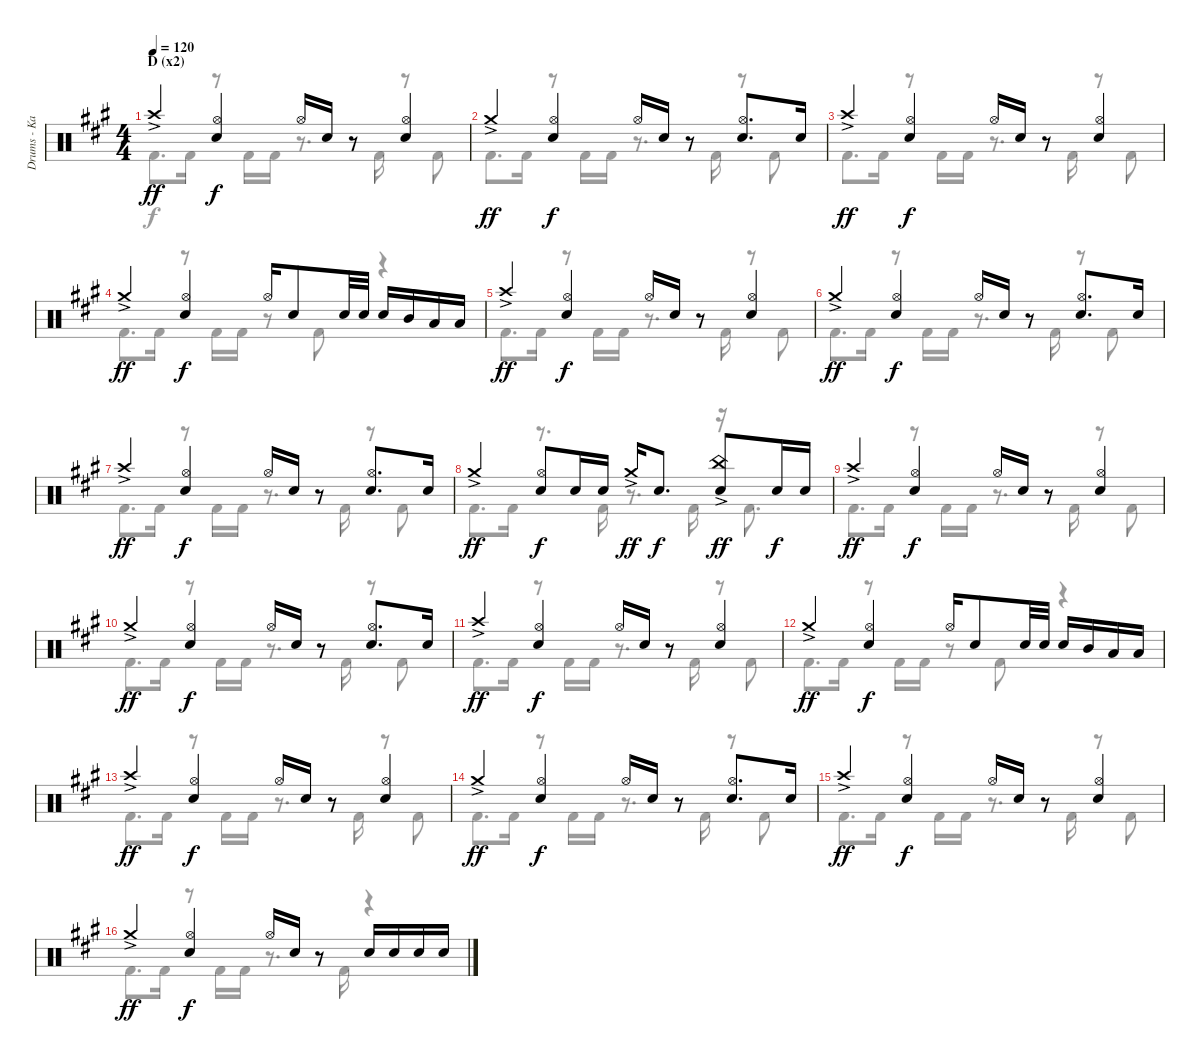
\track ("Drums - Kai" "Drums - Ka") {instrument percussion}
\staff {score}
\articulation defaults
\voice
\ts (4 4)
\section ("" "D (x2)")
\tempo 120
\clef neutral
\ks a "Crash high (hit)"{ac}.4{dy ff}
("Hi-Hat (open)" "Snare (hit) 2").4{dy f} "Hi-Hat (open)".16 "Snare (hit) 2".16 r.8 ("Hi-Hat (open)" "Snare (hit) 2").4 |
"Crash medium (hit)"{ac}.4{dy ff} ("Hi-Hat (open)" "Snare (hit) 2").4{dy f} "Hi-Hat (open)".16 "Snare (hit) 2".16 r.8 ("Hi-Hat (open)" "Snare (hit) 2").8{d} "Snare (hit) 2".16 |
"Crash high (hit)"{ac}.4{dy ff} ("Hi-Hat (open)" "Snare (hit) 2").4{dy f} "Hi-Hat (open)".16 "Snare (hit) 2".16 r.8 ("Hi-Hat (open)" "Snare (hit) 2").4 |
"Crash medium (hit)"{ac}.4{dy ff} ("Hi-Hat (open)" "Snare (hit) 2").4{dy f} "Hi-Hat (open)".16 "Snare (hit) 2".8 "Snare (hit) 2".32 "Snare (hit) 2".32 "Snare (hit) 2".16 "Mid Tom (hit)".16 "Low Tom (hit)".16 "Low Tom (hit)".16 |
"Crash high (hit)"{ac}.4{dy ff} ("Hi-Hat (open)" "Snare (hit) 2").4{dy f} "Hi-Hat (open)".16 "Snare (hit) 2".16 r.8 ("Hi-Hat (open)" "Snare (hit) 2").4 |
"Crash medium (hit)"{ac}.4{dy ff} ("Hi-Hat (open)" "Snare (hit) 2").4{dy f} "Hi-Hat (open)".16 "Snare (hit) 2".16 r.8 ("Hi-Hat (open)" "Snare (hit) 2").8{d} "Snare (hit) 2".16 |
"Crash high (hit)"{ac}.4{dy ff} ("Hi-Hat (open)" "Snare (hit) 2").4{dy f} "Hi-Hat (open)".16 "Snare (hit) 2".16 r.8 ("Hi-Hat (open)" "Snare (hit) 2").8{d} "Snare (hit) 2".16 |
"Crash medium (hit)"{ac}.4{dy ff} ("Hi-Hat (open)" "Snare (hit) 2").8{dy f} "Snare (hit) 2".16 "Snare (hit) 2".16 "Crash medium (hit)"{ac}.16{dy ff} "Snare (hit) 2".8{d dy f} ("China (hit)"{ac} "Snare (hit) 2").8{dy ff} "Snare (hit) 2".16{dy f} "Snare (hit) 2".16 |
"Crash high (hit)"{ac}.4{dy ff} ("Hi-Hat (open)" "Snare (hit) 2").4{dy f} "Hi-Hat (open)".16 "Snare (hit) 2".16 r.8 ("Hi-Hat (open)" "Snare (hit) 2").4 |
"Crash medium (hit)"{ac}.4{dy ff} ("Hi-Hat (open)" "Snare (hit) 2").4{dy f} "Hi-Hat (open)".16 "Snare (hit) 2".16 r.8 ("Hi-Hat (open)" "Snare (hit) 2").8{d} "Snare (hit) 2".16 |
"Crash high (hit)"{ac}.4{dy ff} ("Hi-Hat (open)" "Snare (hit) 2").4{dy f} "Hi-Hat (open)".16 "Snare (hit) 2".16 r.8 ("Hi-Hat (open)" "Snare (hit) 2").4 |
"Crash medium (hit)"{ac}.4{dy ff} ("Hi-Hat (open)" "Snare (hit) 2").4{dy f} "Hi-Hat (open)".16 "Snare (hit) 2".8 "Snare (hit) 2".32 "Snare (hit) 2".32 "Snare (hit) 2".16 "Mid Tom (hit)".16 "Low Tom (hit)".16 "Low Tom (hit)".16 |
"Crash high (hit)"{ac}.4{dy ff} ("Hi-Hat (open)" "Snare (hit) 2").4{dy f} "Hi-Hat (open)".16 "Snare (hit) 2".16 r.8 ("Hi-Hat (open)" "Snare (hit) 2").4 |
"Crash medium (hit)"{ac}.4{dy ff} ("Hi-Hat (open)" "Snare (hit) 2").4{dy f} "Hi-Hat (open)".16 "Snare (hit) 2".16 r.8 ("Hi-Hat (open)" "Snare (hit) 2").8{d} "Snare (hit) 2".16 |
"Crash high (hit)"{ac}.4{dy ff} ("Hi-Hat (open)" "Snare (hit) 2").4{dy f} "Hi-Hat (open)".16 "Snare (hit) 2".16 r.8 ("Hi-Hat (open)" "Snare (hit) 2").4 |
"Crash medium (hit)"{ac}.4{dy ff} ("Hi-Hat (open)" "Snare (hit) 2").4{dy f} "Hi-Hat (open)".16 "Snare (hit) 2".16 r.8 "Snare (hit) 2".16 "Snare (hit) 2".16 "Snare (hit) 2".16 "Snare (hit) 2".16
\voice
\clef neutral
\ottava regular
\simile none
\ks a "Kick (hit) 2".8{d dy f} "Kick (hit) 2".16
r.8 "Kick (hit) 2".16 "Kick (hit) 2".16 r.8{d} "Kick (hit) 2".16 r.8 "Kick (hit) 2".8 |
"Kick (hit) 2".8{d} "Kick (hit) 2".16 r.8 "Kick (hit) 2".16 "Kick (hit) 2".16 r.8{d} "Kick (hit) 2".16 r.8 "Kick (hit) 2".8 |
"Kick (hit) 2".8{d} "Kick (hit) 2".16 r.8 "Kick (hit) 2".16 "Kick (hit) 2".16 r.8{d} "Kick (hit) 2".16 r.8 "Kick (hit) 2".8 |
"Kick (hit) 2".8{d} "Kick (hit) 2".16 r.8 "Kick (hit) 2".16 "Kick (hit) 2".16 r.8 "Kick (hit) 2".8 r.4 |
"Kick (hit) 2".8{d} "Kick (hit) 2".16 r.8 "Kick (hit) 2".16 "Kick (hit) 2".16 r.8{d} "Kick (hit) 2".16 r.8 "Kick (hit) 2".8 |
"Kick (hit) 2".8{d} "Kick (hit) 2".16 r.8 "Kick (hit) 2".16 "Kick (hit) 2".16 r.8{d} "Kick (hit) 2".16 r.8 "Kick (hit) 2".8 |
"Kick (hit) 2".8{d} "Kick (hit) 2".16 r.8 "Kick (hit) 2".16 "Kick (hit) 2".16 r.8{d} "Kick (hit) 2".16 r.8 "Kick (hit) 2".8 |
"Kick (hit) 2".8{d} "Kick (hit) 2".16 r.8{d} "Kick (hit) 2".16 r.8{d} "Kick (hit) 2".16 r.16 "Kick (hit) 2".8{d} |
"Kick (hit) 2".8{d} "Kick (hit) 2".16 r.8 "Kick (hit) 2".16 "Kick (hit) 2".16 r.8{d} "Kick (hit) 2".16 r.8 "Kick (hit) 2".8 |
"Kick (hit) 2".8{d} "Kick (hit) 2".16 r.8 "Kick (hit) 2".16 "Kick (hit) 2".16 r.8{d} "Kick (hit) 2".16 r.8 "Kick (hit) 2".8 |
"Kick (hit) 2".8{d} "Kick (hit) 2".16 r.8 "Kick (hit) 2".16 "Kick (hit) 2".16 r.8{d} "Kick (hit) 2".16 r.8 "Kick (hit) 2".8 |
"Kick (hit) 2".8{d} "Kick (hit) 2".16 r.8 "Kick (hit) 2".16 "Kick (hit) 2".16 r.8 "Kick (hit) 2".8 r.4 |
"Kick (hit) 2".8{d} "Kick (hit) 2".16 r.8 "Kick (hit) 2".16 "Kick (hit) 2".16 r.8{d} "Kick (hit) 2".16 r.8 "Kick (hit) 2".8 |
"Kick (hit) 2".8{d} "Kick (hit) 2".16 r.8 "Kick (hit) 2".16 "Kick (hit) 2".16 r.8{d} "Kick (hit) 2".16 r.8 "Kick (hit) 2".8 |
"Kick (hit) 2".8{d} "Kick (hit) 2".16 r.8 "Kick (hit) 2".16 "Kick (hit) 2".16 r.8{d} "Kick (hit) 2".16 r.8 "Kick (hit) 2".8 |
"Kick (hit) 2".8{d} "Kick (hit) 2".16 r.8 "Kick (hit) 2".16 "Kick (hit) 2".16 r.8{d} "Kick (hit) 2".16 r.4
